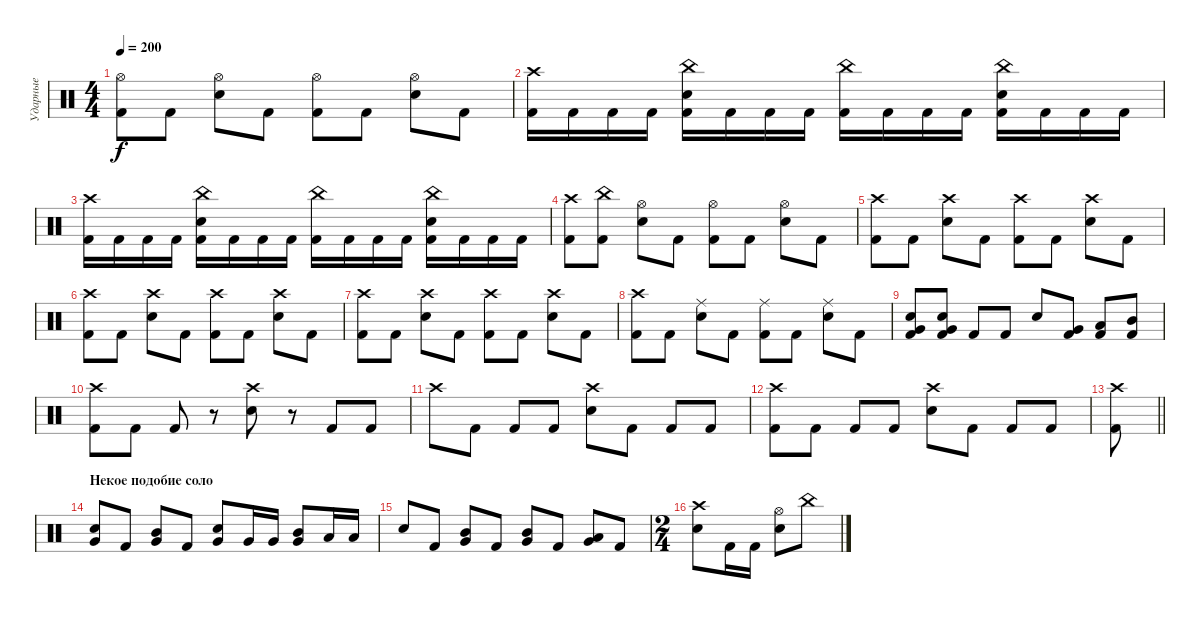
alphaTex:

\track ("Ударные" "Ударные") {instrument percussion}
\staff {score}
\articulation defaults
\ts (4 4)
\tempo 200
\clef neutral
\ks c
("Hi-Hat (open)" "Kick (hit) 2").8{dy f} "Kick (hit) 2".8 ("Hi-Hat (open)" "Electric Snare (hit)").8 "Kick (hit) 2".8 ("Hi-Hat (open)" "Kick (hit) 2").8 "Kick (hit) 2".8 ("Hi-Hat (open)" "Electric Snare (hit)").8 "Kick (hit) 2".8 |
("Kick (hit) 2" "Crash high (hit)").16 "Kick (hit) 2".16 "Kick (hit) 2".16 "Kick (hit) 2".16 ("Kick (hit) 2" "Electric Snare (hit)" "China (hit)").16 "Kick (hit) 2".16 "Kick (hit) 2".16 "Kick (hit) 2".16 ("Kick (hit) 2" "China (hit)").16 "Kick (hit) 2".16 "Kick (hit) 2".16 "Kick (hit) 2".16 ("Kick (hit) 2" "Electric Snare (hit)" "China (hit)").16 "Kick (hit) 2".16 "Kick (hit) 2".16 "Kick (hit) 2".16 |
("Kick (hit) 2" "Crash high (hit)").16 "Kick (hit) 2".16 "Kick (hit) 2".16 "Kick (hit) 2".16 ("Kick (hit) 2" "Electric Snare (hit)" "China (hit)").16 "Kick (hit) 2".16 "Kick (hit) 2".16 "Kick (hit) 2".16 ("Kick (hit) 2" "China (hit)").16 "Kick (hit) 2".16 "Kick (hit) 2".16 "Kick (hit) 2".16 ("Kick (hit) 2" "Electric Snare (hit)" "China (hit)").16 "Kick (hit) 2".16 "Kick (hit) 2".16 "Kick (hit) 2".16 |
("Crash high (hit)" "Kick (hit) 2").8 ("China (hit)" "Kick (hit) 2").8 ("Hi-Hat (open)" "Electric Snare (hit)").8 "Kick (hit) 2".8 ("Hi-Hat (open)" "Kick (hit) 2").8 "Kick (hit) 2".8 ("Hi-Hat (open)" "Electric Snare (hit)").8 "Kick (hit) 2".8 |
("Crash high (hit)" "Kick (hit) 2").8 "Kick (hit) 2".8 ("Crash high (hit)" "Electric Snare (hit)").8 "Kick (hit) 2".8 ("Crash high (hit)" "Kick (hit) 2").8 "Kick (hit) 2".8 ("Crash high (hit)" "Electric Snare (hit)").8 "Kick (hit) 2".8 |
("Crash high (hit)" "Kick (hit) 2").8 "Kick (hit) 2".8 ("Crash high (hit)" "Electric Snare (hit)").8 "Kick (hit) 2".8 ("Crash high (hit)" "Kick (hit) 2").8 "Kick (hit) 2".8 ("Crash high (hit)" "Electric Snare (hit)").8 "Kick (hit) 2".8 |
("Crash high (hit)" "Kick (hit) 2").8 "Kick (hit) 2".8 ("Crash high (hit)" "Electric Snare (hit)").8 "Kick (hit) 2".8 ("Crash high (hit)" "Kick (hit) 2").8 "Kick (hit) 2".8 ("Crash high (hit)" "Electric Snare (hit)").8 "Kick (hit) 2".8 |
("Crash high (hit)" "Kick (hit) 2").8 "Kick (hit) 2".8 ("Ride (middle)" "Electric Snare (hit)").8 "Kick (hit) 2".8 ("Ride (middle)" "Kick (hit) 2").8 "Kick (hit) 2".8 ("Ride (middle)" "Electric Snare (hit)").8 "Kick (hit) 2".8 |
("Kick (hit) 2" "Very Low Tom (hit)" "Electric Snare (hit)").8 ("Kick (hit) 2" "Very Low Tom (hit)" "Electric Snare (hit)").8 "Kick (hit) 2".8 "Kick (hit) 2".8 "Electric Snare (hit)".8 ("Kick (hit) 2" "Very Low Tom (hit)").8 ("Kick (hit) 2" "Low Tom (hit)").8 ("Kick (hit) 2" "Mid Tom (hit)").8 |
("Crash high (hit)" "Kick (hit) 2").8 "Kick (hit) 2".8 "Kick (hit) 2".8 r.8 ("Crash high (hit)" "Electric Snare (hit)").8 r.8 "Kick (hit) 2".8 "Kick (hit) 2".8 |
"Crash high (hit)".8 "Kick (hit) 2".8 "Kick (hit) 2".8 "Kick (hit) 2".8 ("Crash high (hit)" "Electric Snare (hit)").8 "Kick (hit) 2".8 "Kick (hit) 2".8 "Kick (hit) 2".8 |
("Crash high (hit)" "Kick (hit) 2").8 "Kick (hit) 2".8 "Kick (hit) 2".8 "Kick (hit) 2".8 ("Crash high (hit)" "Electric Snare (hit)").8 "Kick (hit) 2".8 "Kick (hit) 2".8 "Kick (hit) 2".8 |
\barLineRight lightlight
("Kick (hit) 2" "Crash high (hit)").8 |
\section ("" "Некое подобие соло")
("Very Low Tom (hit)" "Electric Snare (hit)").8 "Kick (hit) 2".8 ("Very Low Tom (hit)" "Mid Tom (hit)").8 "Kick (hit) 2".8 ("Very Low Tom (hit)" "Electric Snare (hit)").8 "Very Low Tom (hit)".16 "Very Low Tom (hit)".16 ("Very Low Tom (hit)" "Mid Tom (hit)").8 "Low Floor Tom (hit)".16 "Low Floor Tom (hit)".16 |
"Electric Snare (hit)".8 "Kick (hit) 2".8 ("Very Low Tom (hit)" "Mid Tom (hit)").8 "Kick (hit) 2".8 ("Very Low Tom (hit)" "Mid Tom (hit)").8 "Kick (hit) 2".8 ("Very Low Tom (hit)" "Low Tom (hit)").8 "Kick (hit) 2".8 |
\ts (2 4)
("Electric Snare (hit)" "Crash high (hit)").8 "Kick (hit) 2".16 "Kick (hit) 2".16 ("Electric Snare (hit)" "Hi-Hat (open)").8 "China (hit)".8
